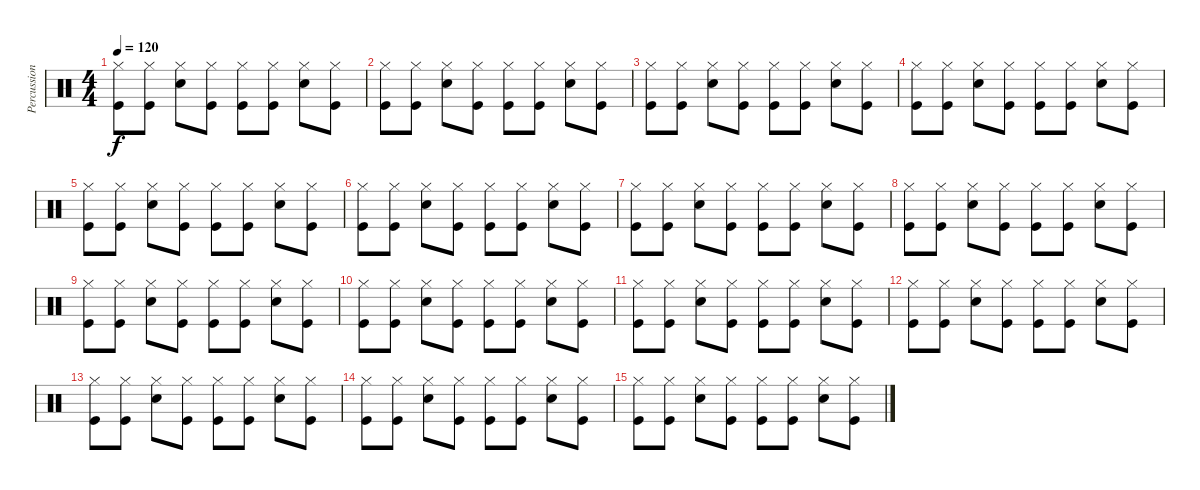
\track ("Percussion" "Percussion") {instrument percussion}
\staff {score}
\articulation defaults
\ts (4 4)
\tempo 120
\clef neutral
\ks c
("Hi-Hat (closed)" "Kick (hit)").8{dy f} ("Hi-Hat (closed)" "Kick (hit)").8 ("Hi-Hat (closed)" "Snare (hit) 2").8 ("Hi-Hat (closed)" "Kick (hit)").8 ("Hi-Hat (closed)" "Kick (hit)").8 ("Hi-Hat (closed)" "Kick (hit)").8 ("Hi-Hat (closed)" "Snare (hit) 2").8 ("Hi-Hat (closed)" "Kick (hit)").8 |
("Hi-Hat (closed)" "Kick (hit)").8 ("Hi-Hat (closed)" "Kick (hit)").8 ("Hi-Hat (closed)" "Snare (hit) 2").8 ("Hi-Hat (closed)" "Kick (hit)").8 ("Hi-Hat (closed)" "Kick (hit)").8 ("Hi-Hat (closed)" "Kick (hit)").8 ("Hi-Hat (closed)" "Snare (hit) 2").8 ("Hi-Hat (closed)" "Kick (hit)").8 |
("Hi-Hat (closed)" "Kick (hit)").8 ("Hi-Hat (closed)" "Kick (hit)").8 ("Hi-Hat (closed)" "Snare (hit) 2").8 ("Hi-Hat (closed)" "Kick (hit)").8 ("Hi-Hat (closed)" "Kick (hit)").8 ("Hi-Hat (closed)" "Kick (hit)").8 ("Hi-Hat (closed)" "Snare (hit) 2").8 ("Hi-Hat (closed)" "Kick (hit)").8 |
("Hi-Hat (closed)" "Kick (hit)").8 ("Hi-Hat (closed)" "Kick (hit)").8 ("Hi-Hat (closed)" "Snare (hit) 2").8 ("Hi-Hat (closed)" "Kick (hit)").8 ("Hi-Hat (closed)" "Kick (hit)").8 ("Hi-Hat (closed)" "Kick (hit)").8 ("Hi-Hat (closed)" "Snare (hit) 2").8 ("Hi-Hat (closed)" "Kick (hit)").8 |
("Hi-Hat (closed)" "Kick (hit)").8 ("Hi-Hat (closed)" "Kick (hit)").8 ("Hi-Hat (closed)" "Snare (hit) 2").8 ("Hi-Hat (closed)" "Kick (hit)").8 ("Hi-Hat (closed)" "Kick (hit)").8 ("Hi-Hat (closed)" "Kick (hit)").8 ("Hi-Hat (closed)" "Snare (hit) 2").8 ("Hi-Hat (closed)" "Kick (hit)").8 |
("Hi-Hat (closed)" "Kick (hit)").8 ("Hi-Hat (closed)" "Kick (hit)").8 ("Hi-Hat (closed)" "Snare (hit) 2").8 ("Hi-Hat (closed)" "Kick (hit)").8 ("Hi-Hat (closed)" "Kick (hit)").8 ("Hi-Hat (closed)" "Kick (hit)").8 ("Hi-Hat (closed)" "Snare (hit) 2").8 ("Hi-Hat (closed)" "Kick (hit)").8 |
("Hi-Hat (closed)" "Kick (hit)").8 ("Hi-Hat (closed)" "Kick (hit)").8 ("Hi-Hat (closed)" "Snare (hit) 2").8 ("Hi-Hat (closed)" "Kick (hit)").8 ("Hi-Hat (closed)" "Kick (hit)").8 ("Hi-Hat (closed)" "Kick (hit)").8 ("Hi-Hat (closed)" "Snare (hit) 2").8 ("Hi-Hat (closed)" "Kick (hit)").8 |
("Hi-Hat (closed)" "Kick (hit)").8 ("Hi-Hat (closed)" "Kick (hit)").8 ("Hi-Hat (closed)" "Snare (hit) 2").8 ("Hi-Hat (closed)" "Kick (hit)").8 ("Hi-Hat (closed)" "Kick (hit)").8 ("Hi-Hat (closed)" "Kick (hit)").8 ("Hi-Hat (closed)" "Snare (hit) 2").8 ("Hi-Hat (closed)" "Kick (hit)").8 |
("Hi-Hat (closed)" "Kick (hit)").8 ("Hi-Hat (closed)" "Kick (hit)").8 ("Hi-Hat (closed)" "Snare (hit) 2").8 ("Hi-Hat (closed)" "Kick (hit)").8 ("Hi-Hat (closed)" "Kick (hit)").8 ("Hi-Hat (closed)" "Kick (hit)").8 ("Hi-Hat (closed)" "Snare (hit) 2").8 ("Hi-Hat (closed)" "Kick (hit)").8 |
("Hi-Hat (closed)" "Kick (hit)").8 ("Hi-Hat (closed)" "Kick (hit)").8 ("Hi-Hat (closed)" "Snare (hit) 2").8 ("Hi-Hat (closed)" "Kick (hit)").8 ("Hi-Hat (closed)" "Kick (hit)").8 ("Hi-Hat (closed)" "Kick (hit)").8 ("Hi-Hat (closed)" "Snare (hit) 2").8 ("Hi-Hat (closed)" "Kick (hit)").8 |
("Hi-Hat (closed)" "Kick (hit)").8 ("Hi-Hat (closed)" "Kick (hit)").8 ("Hi-Hat (closed)" "Snare (hit) 2").8 ("Hi-Hat (closed)" "Kick (hit)").8 ("Hi-Hat (closed)" "Kick (hit)").8 ("Hi-Hat (closed)" "Kick (hit)").8 ("Hi-Hat (closed)" "Snare (hit) 2").8 ("Hi-Hat (closed)" "Kick (hit)").8 |
("Hi-Hat (closed)" "Kick (hit)").8 ("Hi-Hat (closed)" "Kick (hit)").8 ("Hi-Hat (closed)" "Snare (hit) 2").8 ("Hi-Hat (closed)" "Kick (hit)").8 ("Hi-Hat (closed)" "Kick (hit)").8 ("Hi-Hat (closed)" "Kick (hit)").8 ("Hi-Hat (closed)" "Snare (hit) 2").8 ("Hi-Hat (closed)" "Kick (hit)").8 |
("Hi-Hat (closed)" "Kick (hit)").8 ("Hi-Hat (closed)" "Kick (hit)").8 ("Hi-Hat (closed)" "Snare (hit) 2").8 ("Hi-Hat (closed)" "Kick (hit)").8 ("Hi-Hat (closed)" "Kick (hit)").8 ("Hi-Hat (closed)" "Kick (hit)").8 ("Hi-Hat (closed)" "Snare (hit) 2").8 ("Hi-Hat (closed)" "Kick (hit)").8 |
("Hi-Hat (closed)" "Kick (hit)").8 ("Hi-Hat (closed)" "Kick (hit)").8 ("Hi-Hat (closed)" "Snare (hit) 2").8 ("Hi-Hat (closed)" "Kick (hit)").8 ("Hi-Hat (closed)" "Kick (hit)").8 ("Hi-Hat (closed)" "Kick (hit)").8 ("Hi-Hat (closed)" "Snare (hit) 2").8 ("Hi-Hat (closed)" "Kick (hit)").8 |
("Hi-Hat (closed)" "Kick (hit)").8 ("Hi-Hat (closed)" "Kick (hit)").8 ("Hi-Hat (closed)" "Snare (hit) 2").8 ("Hi-Hat (closed)" "Kick (hit)").8 ("Hi-Hat (closed)" "Kick (hit)").8 ("Hi-Hat (closed)" "Kick (hit)").8 ("Hi-Hat (closed)" "Snare (hit) 2").8 ("Hi-Hat (closed)" "Kick (hit)").8
